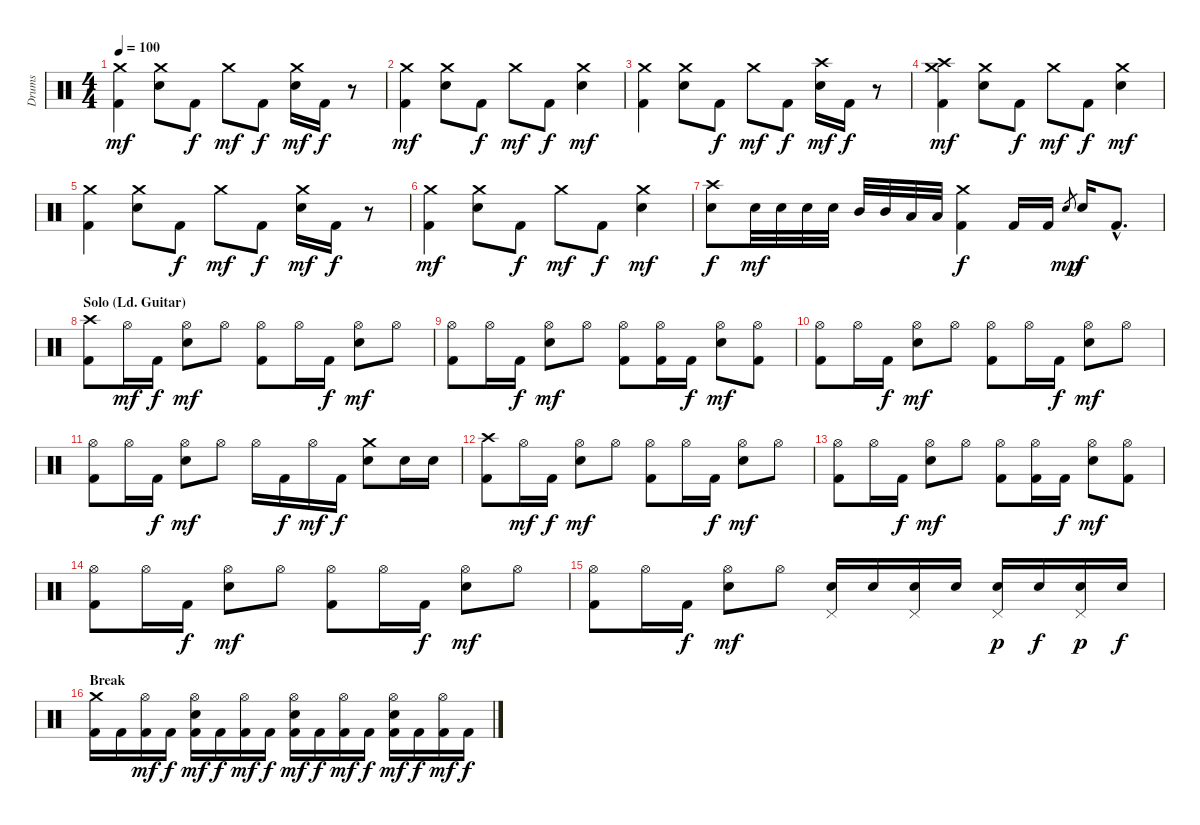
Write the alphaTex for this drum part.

\track ("Drums" "Drums") {instrument percussion}
\staff {score}
\articulation defaults
\ts (4 4)
\tempo 100
\clef neutral
\ks c
("Crash medium (hit)" "Kick (hit) 2").4{dy mf} ("Crash medium (hit)" "Electric Snare (hit)").8 "Kick (hit) 2".8{dy f} "Crash medium (hit)".8{dy mf} "Kick (hit) 2".8{dy f} ("Crash medium (hit)" "Electric Snare (hit)").16{dy mf} "Kick (hit) 2".16{dy f} r.8 |
("Crash medium (hit)" "Kick (hit) 2").4{dy mf} ("Crash medium (hit)" "Electric Snare (hit)").8 "Kick (hit) 2".8{dy f} "Crash medium (hit)".8{dy mf} "Kick (hit) 2".8{dy f} ("Crash medium (hit)" "Electric Snare (hit)").4{dy mf} |
("Crash medium (hit)" "Kick (hit) 2").4 ("Crash medium (hit)" "Electric Snare (hit)").8 "Kick (hit) 2".8{dy f} "Crash medium (hit)".8{dy mf} "Kick (hit) 2".8{dy f} ("Crash high (hit)" "Electric Snare (hit)").16{dy mf} "Kick (hit) 2".16{dy f} r.8 |
("Crash medium (hit)" "Crash high (hit)" "Kick (hit) 2").4{dy mf} ("Crash medium (hit)" "Electric Snare (hit)").8 "Kick (hit) 2".8{dy f} "Crash medium (hit)".8{dy mf} "Kick (hit) 2".8{dy f} ("Crash medium (hit)" "Electric Snare (hit)").4{dy mf} |
("Crash medium (hit)" "Kick (hit) 2").4 ("Crash medium (hit)" "Electric Snare (hit)").8 "Kick (hit) 2".8{dy f} "Crash medium (hit)".8{dy mf} "Kick (hit) 2".8{dy f} ("Crash medium (hit)" "Electric Snare (hit)").16{dy mf} "Kick (hit) 2".16{dy f} r.8 |
("Crash medium (hit)" "Kick (hit) 2").4{dy mf} ("Crash medium (hit)" "Electric Snare (hit)").8 "Kick (hit) 2".8{dy f} "Crash medium (hit)".8{dy mf} "Kick (hit) 2".8{dy f} ("Crash medium (hit)" "Electric Snare (hit)").4{dy mf} |
("Crash high (hit)" "Electric Snare (hit)").8{dy f} "Electric Snare (hit)".32{dy mf} "Electric Snare (hit)".32 "Electric Snare (hit)".32 "Electric Snare (hit)".32 "Mid Tom (hit)".32 "Mid Tom (hit)".32 "Low Tom (hit)".32 "Low Tom (hit)".32 ("Crash medium (hit)" "Kick (hit) 2").4{dy f} "Kick (hit) 2".16 "Kick (hit) 2".16 "Electric Snare (hit)".8{gr dy mp} "Electric Snare (hit)".16{dy f} "Kick (hit) 2"{hac}.8{d} |
\section ("" "Solo (Ld. Guitar)")
("Crash high (hit)" "Kick (hit) 2").8 "Hi-Hat (open)".16{dy mf} "Kick (hit) 2".16{dy f} ("Hi-Hat (open)" "Electric Snare (hit)").8{dy mf} "Hi-Hat (open)".8 ("Hi-Hat (open)" "Kick (hit) 2").8 "Hi-Hat (open)".16 "Kick (hit) 2".16{dy f} ("Hi-Hat (open)" "Electric Snare (hit)").8{dy mf} "Hi-Hat (open)".8 |
("Hi-Hat (open)" "Kick (hit) 2").8 "Hi-Hat (open)".16 "Kick (hit) 2".16{dy f} ("Hi-Hat (open)" "Electric Snare (hit)").8{dy mf} "Hi-Hat (open)".8 ("Hi-Hat (open)" "Kick (hit) 2").8 ("Hi-Hat (open)" "Kick (hit) 2").16 "Kick (hit) 2".16{dy f} ("Hi-Hat (open)" "Electric Snare (hit)").8{dy mf} ("Hi-Hat (open)" "Kick (hit) 2").8 |
("Hi-Hat (open)" "Kick (hit) 2").8 "Hi-Hat (open)".16 "Kick (hit) 2".16{dy f} ("Hi-Hat (open)" "Electric Snare (hit)").8{dy mf} "Hi-Hat (open)".8 ("Hi-Hat (open)" "Kick (hit) 2").8 "Hi-Hat (open)".16 "Kick (hit) 2".16{dy f} ("Hi-Hat (open)" "Electric Snare (hit)").8{dy mf} "Hi-Hat (open)".8 |
("Hi-Hat (open)" "Kick (hit) 2").8 "Hi-Hat (open)".16 "Kick (hit) 2".16{dy f} ("Hi-Hat (open)" "Electric Snare (hit)").8{dy mf} "Hi-Hat (open)".8 "Hi-Hat (open)".16 "Kick (hit) 2".16{dy f} "Hi-Hat (open)".16{dy mf} "Kick (hit) 2".16{dy f} ("Crash medium (hit)" "Electric Snare (hit)").8 "Electric Snare (hit)".16 "Electric Snare (hit)".16 |
("Crash high (hit)" "Kick (hit) 2").8 "Hi-Hat (open)".16{dy mf} "Kick (hit) 2".16{dy f} ("Hi-Hat (open)" "Electric Snare (hit)").8{dy mf} "Hi-Hat (open)".8 ("Hi-Hat (open)" "Kick (hit) 2").8 "Hi-Hat (open)".16 "Kick (hit) 2".16{dy f} ("Hi-Hat (open)" "Electric Snare (hit)").8{dy mf} "Hi-Hat (open)".8 |
("Hi-Hat (open)" "Kick (hit) 2").8 "Hi-Hat (open)".16 "Kick (hit) 2".16{dy f} ("Hi-Hat (open)" "Electric Snare (hit)").8{dy mf} "Hi-Hat (open)".8 ("Hi-Hat (open)" "Kick (hit) 2").8 ("Hi-Hat (open)" "Kick (hit) 2").16 "Kick (hit) 2".16{dy f} ("Hi-Hat (open)" "Electric Snare (hit)").8{dy mf} ("Hi-Hat (open)" "Kick (hit) 2").8 |
("Hi-Hat (open)" "Kick (hit) 2").8 "Hi-Hat (open)".16 "Kick (hit) 2".16{dy f} ("Hi-Hat (open)" "Electric Snare (hit)").8{dy mf} "Hi-Hat (open)".8 ("Hi-Hat (open)" "Kick (hit) 2").8 "Hi-Hat (open)".16 "Kick (hit) 2".16{dy f} ("Hi-Hat (open)" "Electric Snare (hit)").8{dy mf} "Hi-Hat (open)".8 |
("Hi-Hat (open)" "Kick (hit) 2").8 "Hi-Hat (open)".16 "Kick (hit) 2".16{dy f} ("Hi-Hat (open)" "Electric Snare (hit)").8{dy mf} "Hi-Hat (open)".8 ("Pedal Hi-Hat (hit)" "Electric Snare (hit)").16 "Electric Snare (hit)".16 ("Pedal Hi-Hat (hit)" "Electric Snare (hit)").16 "Electric Snare (hit)".16 ("Pedal Hi-Hat (hit)" "Electric Snare (hit)").16{dy p} "Electric Snare (hit)".16{dy f} ("Pedal Hi-Hat (hit)" "Electric Snare (hit)").16{dy p} "Electric Snare (hit)".16{dy f} |
\section ("" "Break")
("Crash medium (hit)" "Kick (hit) 2").16 "Kick (hit) 2".16 ("Hi-Hat (open)" "Kick (hit) 2").16{dy mf} "Kick (hit) 2".16{dy f} ("Hi-Hat (open)" "Electric Snare (hit)" "Kick (hit) 2").16{dy mf} "Kick (hit) 2".16{dy f} ("Hi-Hat (open)" "Kick (hit) 2").16{dy mf} "Kick (hit) 2".16{dy f} ("Hi-Hat (open)" "Electric Snare (hit)" "Kick (hit) 2").16{dy mf} "Kick (hit) 2".16{dy f} ("Hi-Hat (open)" "Kick (hit) 2").16{dy mf} "Kick (hit) 2".16{dy f} ("Hi-Hat (open)" "Electric Snare (hit)" "Kick (hit) 2").16{dy mf} "Kick (hit) 2".16{dy f} ("Hi-Hat (open)" "Kick (hit) 2").16{dy mf} "Kick (hit) 2".16{dy f}
